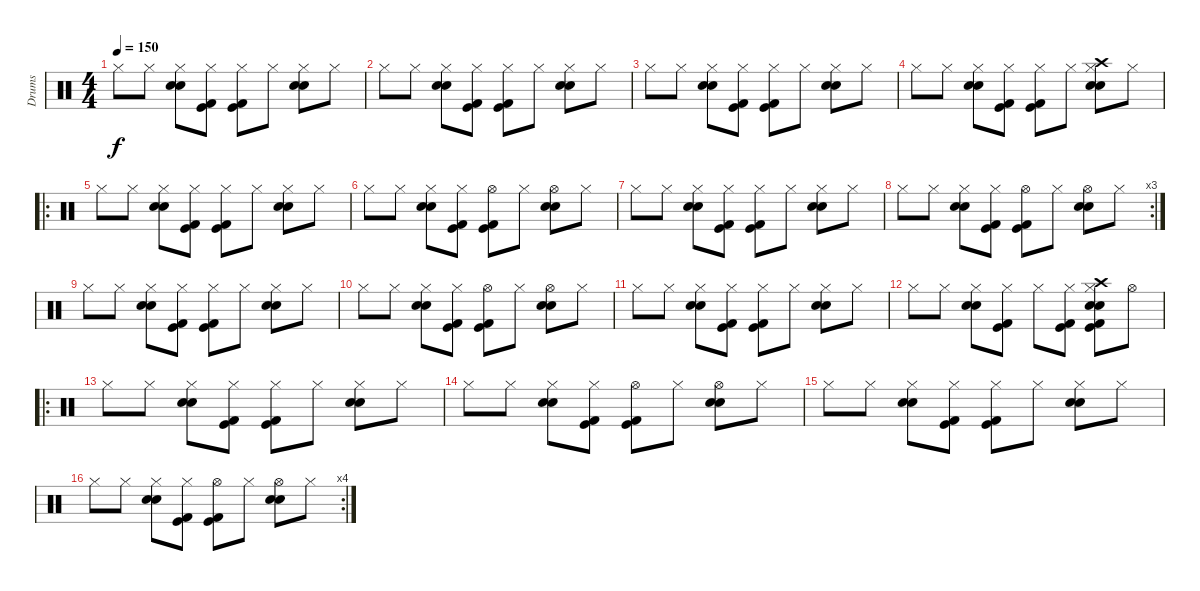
\track ("Drums" "Drums") {instrument percussion}
\staff {score}
\articulation defaults
\ts (4 4)
\tempo 150
\clef neutral
\ks c "Hi-Hat (closed)".8{dy f} "Hi-Hat (closed)".8
("Hi-Hat (closed)" "Snare (hit) 2" "Electric Snare (hit)").8 ("Hi-Hat (closed)" "Kick (hit) 2" "Kick (hit)").8 ("Hi-Hat (closed)" "Kick (hit) 2" "Kick (hit)").8 "Hi-Hat (closed)".8 ("Hi-Hat (closed)" "Snare (hit) 2" "Electric Snare (hit)").8 "Hi-Hat (closed)".8 |
"Hi-Hat (closed)".8 "Hi-Hat (closed)".8 ("Hi-Hat (closed)" "Snare (hit) 2" "Electric Snare (hit)").8 ("Hi-Hat (closed)" "Kick (hit) 2" "Kick (hit)").8 ("Hi-Hat (closed)" "Kick (hit) 2" "Kick (hit)").8 "Hi-Hat (closed)".8 ("Hi-Hat (closed)" "Snare (hit) 2" "Electric Snare (hit)").8 "Hi-Hat (closed)".8 |
"Hi-Hat (closed)".8 "Hi-Hat (closed)".8 ("Hi-Hat (closed)" "Snare (hit) 2" "Electric Snare (hit)").8 ("Hi-Hat (closed)" "Kick (hit) 2" "Kick (hit)").8 ("Hi-Hat (closed)" "Kick (hit) 2" "Kick (hit)").8 "Hi-Hat (closed)".8 ("Hi-Hat (closed)" "Snare (hit) 2" "Electric Snare (hit)").8 "Hi-Hat (closed)".8 |
"Hi-Hat (closed)".8 "Hi-Hat (closed)".8 ("Hi-Hat (closed)" "Snare (hit) 2" "Electric Snare (hit)").8 ("Hi-Hat (closed)" "Kick (hit) 2" "Kick (hit)").8 ("Hi-Hat (closed)" "Kick (hit) 2" "Kick (hit)").8 "Hi-Hat (closed)".8 ("Hi-Hat (closed)" "Crash high (hit)" "Snare (hit) 2" "Electric Snare (hit)").8 "Hi-Hat (closed)".8 |
\ro "Hi-Hat (closed)".8 "Hi-Hat (closed)".8
("Hi-Hat (closed)" "Snare (hit) 2" "Electric Snare (hit)").8 ("Hi-Hat (closed)" "Kick (hit) 2" "Kick (hit)").8 ("Hi-Hat (closed)" "Kick (hit) 2" "Kick (hit)").8 "Hi-Hat (closed)".8 ("Hi-Hat (closed)" "Snare (hit) 2" "Electric Snare (hit)").8 "Hi-Hat (closed)".8 |
"Hi-Hat (closed)".8 "Hi-Hat (closed)".8 ("Hi-Hat (closed)" "Snare (hit) 2" "Electric Snare (hit)").8 ("Hi-Hat (closed)" "Kick (hit) 2" "Kick (hit)").8 ("Hi-Hat (open)" "Kick (hit) 2" "Kick (hit)").8 "Hi-Hat (closed)".8 ("Hi-Hat (open)" "Snare (hit) 2" "Electric Snare (hit)").8 "Hi-Hat (closed)".8 |
"Hi-Hat (closed)".8 "Hi-Hat (closed)".8 ("Hi-Hat (closed)" "Snare (hit) 2" "Electric Snare (hit)").8 ("Hi-Hat (closed)" "Kick (hit) 2" "Kick (hit)").8 ("Hi-Hat (closed)" "Kick (hit) 2" "Kick (hit)").8 "Hi-Hat (closed)".8 ("Hi-Hat (closed)" "Snare (hit) 2" "Electric Snare (hit)").8 "Hi-Hat (closed)".8 |
\rc 3 "Hi-Hat (closed)".8 "Hi-Hat (closed)".8
("Hi-Hat (closed)" "Snare (hit) 2" "Electric Snare (hit)").8 ("Hi-Hat (closed)" "Kick (hit) 2" "Kick (hit)").8 ("Hi-Hat (open)" "Kick (hit) 2" "Kick (hit)").8 "Hi-Hat (closed)".8 ("Hi-Hat (open)" "Snare (hit) 2" "Electric Snare (hit)").8 "Hi-Hat (closed)".8 |
"Hi-Hat (closed)".8 "Hi-Hat (closed)".8 ("Hi-Hat (closed)" "Snare (hit) 2" "Electric Snare (hit)").8 ("Hi-Hat (closed)" "Kick (hit) 2" "Kick (hit)").8 ("Hi-Hat (closed)" "Kick (hit) 2" "Kick (hit)").8 "Hi-Hat (closed)".8 ("Hi-Hat (closed)" "Snare (hit) 2" "Electric Snare (hit)").8 "Hi-Hat (closed)".8 |
"Hi-Hat (closed)".8 "Hi-Hat (closed)".8 ("Hi-Hat (closed)" "Snare (hit) 2" "Electric Snare (hit)").8 ("Hi-Hat (closed)" "Kick (hit) 2" "Kick (hit)").8 ("Hi-Hat (open)" "Kick (hit) 2" "Kick (hit)").8 "Hi-Hat (closed)".8 ("Hi-Hat (open)" "Snare (hit) 2" "Electric Snare (hit)").8 "Hi-Hat (closed)".8 |
"Hi-Hat (closed)".8 "Hi-Hat (closed)".8 ("Hi-Hat (closed)" "Snare (hit) 2" "Electric Snare (hit)").8 ("Hi-Hat (closed)" "Kick (hit) 2" "Kick (hit)").8 ("Hi-Hat (closed)" "Kick (hit) 2" "Kick (hit)").8 "Hi-Hat (closed)".8 ("Hi-Hat (closed)" "Snare (hit) 2" "Electric Snare (hit)").8 "Hi-Hat (closed)".8 |
"Hi-Hat (closed)".8 "Hi-Hat (closed)".8 ("Hi-Hat (closed)" "Snare (hit) 2" "Electric Snare (hit)").8 ("Hi-Hat (closed)" "Kick (hit) 2" "Kick (hit)").8 "Hi-Hat (closed)".8 ("Hi-Hat (closed)" "Kick (hit) 2" "Kick (hit)").8 ("Hi-Hat (closed)" "Crash high (hit)" "Kick (hit) 2" "Kick (hit)" "Snare (hit) 2" "Electric Snare (hit)").8 "Hi-Hat (open)".8 |
\ro "Hi-Hat (closed)".8 "Hi-Hat (closed)".8
("Hi-Hat (closed)" "Snare (hit) 2" "Electric Snare (hit)").8 ("Hi-Hat (closed)" "Kick (hit) 2" "Kick (hit)").8 ("Hi-Hat (closed)" "Kick (hit) 2" "Kick (hit)").8 "Hi-Hat (closed)".8 ("Hi-Hat (closed)" "Snare (hit) 2" "Electric Snare (hit)").8 "Hi-Hat (closed)".8 |
"Hi-Hat (closed)".8 "Hi-Hat (closed)".8 ("Hi-Hat (closed)" "Snare (hit) 2" "Electric Snare (hit)").8 ("Hi-Hat (closed)" "Kick (hit) 2" "Kick (hit)").8 ("Hi-Hat (open)" "Kick (hit) 2" "Kick (hit)").8 "Hi-Hat (closed)".8 ("Hi-Hat (open)" "Snare (hit) 2" "Electric Snare (hit)").8 "Hi-Hat (closed)".8 |
"Hi-Hat (closed)".8 "Hi-Hat (closed)".8 ("Hi-Hat (closed)" "Snare (hit) 2" "Electric Snare (hit)").8 ("Hi-Hat (closed)" "Kick (hit) 2" "Kick (hit)").8 ("Hi-Hat (closed)" "Kick (hit) 2" "Kick (hit)").8 "Hi-Hat (closed)".8 ("Hi-Hat (closed)" "Snare (hit) 2" "Electric Snare (hit)").8 "Hi-Hat (closed)".8 |
\rc 4 "Hi-Hat (closed)".8 "Hi-Hat (closed)".8
("Hi-Hat (closed)" "Snare (hit) 2" "Electric Snare (hit)").8 ("Hi-Hat (closed)" "Kick (hit) 2" "Kick (hit)").8 ("Hi-Hat (open)" "Kick (hit) 2" "Kick (hit)").8 "Hi-Hat (closed)".8 ("Hi-Hat (open)" "Snare (hit) 2" "Electric Snare (hit)").8 "Hi-Hat (closed)".8
